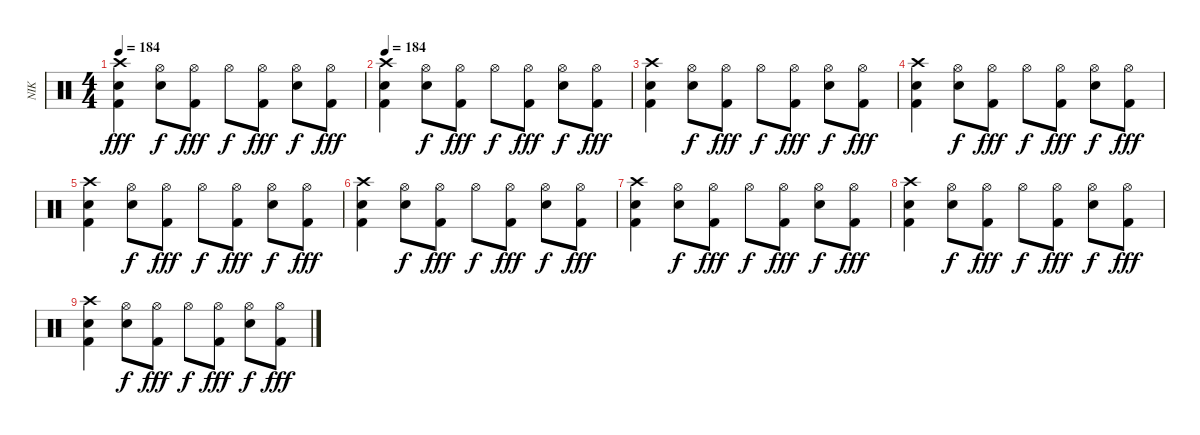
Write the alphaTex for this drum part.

\track ("NIK" "NIK") {instrument percussion}
\staff {score}
\articulation defaults
\ts (4 4)
\tempo 184
\clef neutral
\ks c
("Crash high (hit)" "Snare (hit) 2" "Kick (hit) 2").4{dy fff} ("Hi-Hat (open)" "Snare (hit) 2").8{dy f} ("Hi-Hat (open)" "Kick (hit) 2").8{dy fff} "Hi-Hat (open)".8{dy f} ("Hi-Hat (open)" "Kick (hit) 2").8{dy fff} ("Hi-Hat (open)" "Snare (hit) 2").8{dy f} ("Hi-Hat (open)" "Kick (hit) 2").8{dy fff} |
\tempo 184
("Crash high (hit)" "Snare (hit) 2" "Kick (hit) 2").4 ("Hi-Hat (open)" "Snare (hit) 2").8{dy f} ("Hi-Hat (open)" "Kick (hit) 2").8{dy fff} "Hi-Hat (open)".8{dy f} ("Hi-Hat (open)" "Kick (hit) 2").8{dy fff} ("Hi-Hat (open)" "Snare (hit) 2").8{dy f} ("Hi-Hat (open)" "Kick (hit) 2").8{dy fff} |
("Crash high (hit)" "Snare (hit) 2" "Kick (hit) 2").4 ("Hi-Hat (open)" "Snare (hit) 2").8{dy f} ("Hi-Hat (open)" "Kick (hit) 2").8{dy fff} "Hi-Hat (open)".8{dy f} ("Hi-Hat (open)" "Kick (hit) 2").8{dy fff} ("Hi-Hat (open)" "Snare (hit) 2").8{dy f} ("Hi-Hat (open)" "Kick (hit) 2").8{dy fff} |
("Crash high (hit)" "Snare (hit) 2" "Kick (hit) 2").4 ("Hi-Hat (open)" "Snare (hit) 2").8{dy f} ("Hi-Hat (open)" "Kick (hit) 2").8{dy fff} "Hi-Hat (open)".8{dy f} ("Hi-Hat (open)" "Kick (hit) 2").8{dy fff} ("Hi-Hat (open)" "Snare (hit) 2").8{dy f} ("Hi-Hat (open)" "Kick (hit) 2").8{dy fff} |
("Crash high (hit)" "Snare (hit) 2" "Kick (hit) 2").4 ("Hi-Hat (open)" "Snare (hit) 2").8{dy f} ("Hi-Hat (open)" "Kick (hit) 2").8{dy fff} "Hi-Hat (open)".8{dy f} ("Hi-Hat (open)" "Kick (hit) 2").8{dy fff} ("Hi-Hat (open)" "Snare (hit) 2").8{dy f} ("Hi-Hat (open)" "Kick (hit) 2").8{dy fff} |
("Crash high (hit)" "Snare (hit) 2" "Kick (hit) 2").4 ("Hi-Hat (open)" "Snare (hit) 2").8{dy f} ("Hi-Hat (open)" "Kick (hit) 2").8{dy fff} "Hi-Hat (open)".8{dy f} ("Hi-Hat (open)" "Kick (hit) 2").8{dy fff} ("Hi-Hat (open)" "Snare (hit) 2").8{dy f} ("Hi-Hat (open)" "Kick (hit) 2").8{dy fff} |
("Crash high (hit)" "Snare (hit) 2" "Kick (hit) 2").4 ("Hi-Hat (open)" "Snare (hit) 2").8{dy f} ("Hi-Hat (open)" "Kick (hit) 2").8{dy fff} "Hi-Hat (open)".8{dy f} ("Hi-Hat (open)" "Kick (hit) 2").8{dy fff} ("Hi-Hat (open)" "Snare (hit) 2").8{dy f} ("Hi-Hat (open)" "Kick (hit) 2").8{dy fff} |
("Crash high (hit)" "Snare (hit) 2" "Kick (hit) 2").4 ("Hi-Hat (open)" "Snare (hit) 2").8{dy f} ("Hi-Hat (open)" "Kick (hit) 2").8{dy fff} "Hi-Hat (open)".8{dy f} ("Hi-Hat (open)" "Kick (hit) 2").8{dy fff} ("Hi-Hat (open)" "Snare (hit) 2").8{dy f} ("Hi-Hat (open)" "Kick (hit) 2").8{dy fff} |
("Crash high (hit)" "Snare (hit) 2" "Kick (hit) 2").4 ("Hi-Hat (open)" "Snare (hit) 2").8{dy f} ("Hi-Hat (open)" "Kick (hit) 2").8{dy fff} "Hi-Hat (open)".8{dy f} ("Hi-Hat (open)" "Kick (hit) 2").8{dy fff} ("Hi-Hat (open)" "Snare (hit) 2").8{dy f} ("Hi-Hat (open)" "Kick (hit) 2").8{dy fff}
